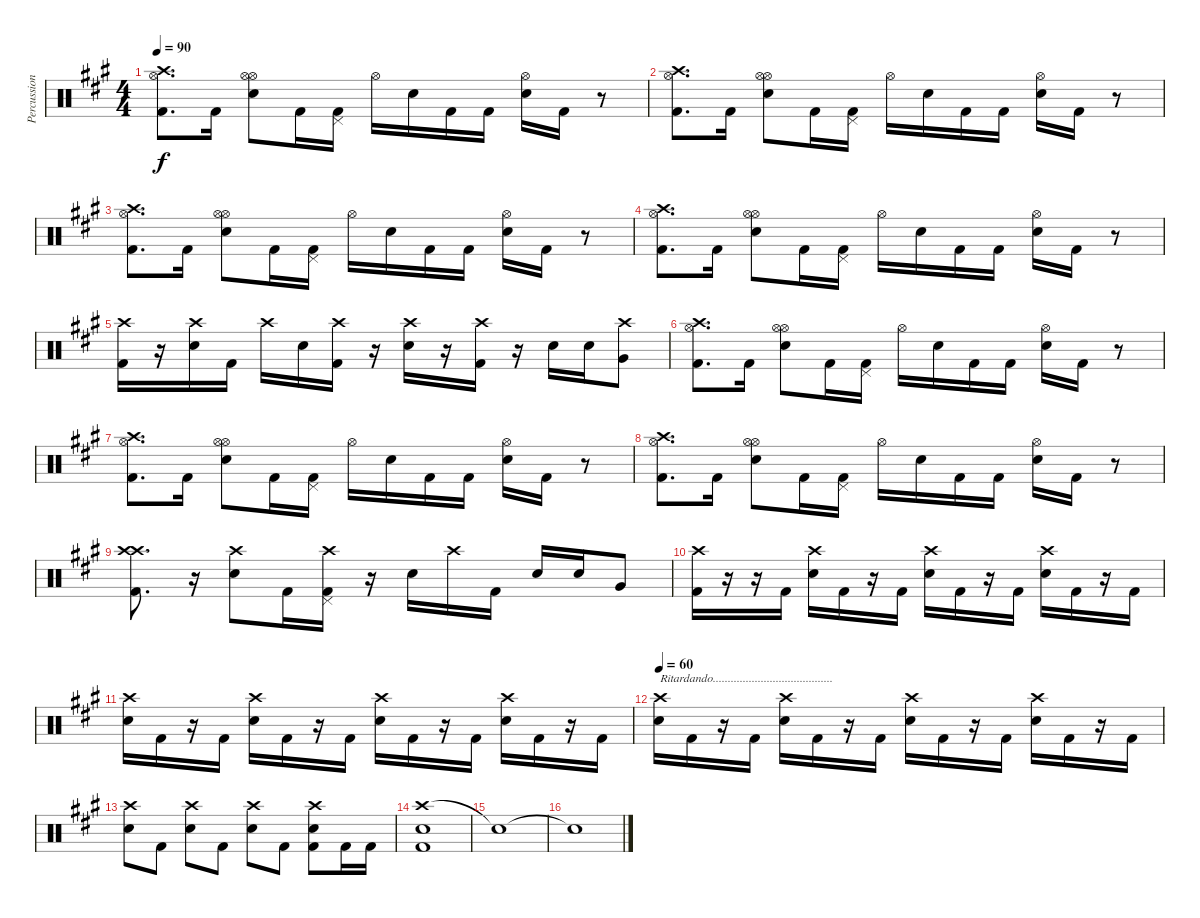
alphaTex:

\track ("Percussion" "Percussion") {instrument percussion}
\staff {score}
\articulation defaults
\ts (4 4)
\tempo 90
\clef neutral
\ks a
("Hi-Hat (open)" "Crash high (hit)" "Kick (hit) 2").8{d dy f} "Kick (hit) 2".16 ("Hi-Hat (open)" "Electric Snare (hit)" "Hi-Hat (open)").8 "Kick (hit) 2".16 ("Pedal Hi-Hat (hit)" "Kick (hit) 2").16 "Hi-Hat (open)".16 "Electric Snare (hit)".16 "Kick (hit) 2".16 "Kick (hit) 2".16 ("Hi-Hat (open)" "Electric Snare (hit)").16 "Kick (hit) 2".16 r.8 |
("Hi-Hat (open)" "Crash high (hit)" "Kick (hit) 2").8{d} "Kick (hit) 2".16 ("Hi-Hat (open)" "Electric Snare (hit)" "Hi-Hat (open)").8 "Kick (hit) 2".16 ("Pedal Hi-Hat (hit)" "Kick (hit) 2").16 "Hi-Hat (open)".16 "Electric Snare (hit)".16 "Kick (hit) 2".16 "Kick (hit) 2".16 ("Hi-Hat (open)" "Electric Snare (hit)").16 "Kick (hit) 2".16 r.8 |
("Hi-Hat (open)" "Crash high (hit)" "Kick (hit) 2").8{d} "Kick (hit) 2".16 ("Hi-Hat (open)" "Electric Snare (hit)" "Hi-Hat (open)").8 "Kick (hit) 2".16 ("Pedal Hi-Hat (hit)" "Kick (hit) 2").16 "Hi-Hat (open)".16 "Electric Snare (hit)".16 "Kick (hit) 2".16 "Kick (hit) 2".16 ("Hi-Hat (open)" "Electric Snare (hit)").16 "Kick (hit) 2".16 r.8 |
("Hi-Hat (open)" "Crash high (hit)" "Kick (hit) 2").8{d} "Kick (hit) 2".16 ("Hi-Hat (open)" "Electric Snare (hit)" "Hi-Hat (open)").8 "Kick (hit) 2".16 ("Pedal Hi-Hat (hit)" "Kick (hit) 2").16 "Hi-Hat (open)".16 "Electric Snare (hit)".16 "Kick (hit) 2".16 "Kick (hit) 2".16 ("Hi-Hat (open)" "Electric Snare (hit)").16 "Kick (hit) 2".16 r.8 |
("Crash high (hit)" "Kick (hit) 2").16 r.16 ("Crash high (hit)" "Electric Snare (hit)").16 "Kick (hit) 2".16 "Crash high (hit)".16 "Electric Snare (hit)".16 ("Crash high (hit)" "Kick (hit) 2").16 r.16 ("Crash high (hit)" "Electric Snare (hit)").16 r.16 ("Crash high (hit)" "Kick (hit) 2").16 r.16 "Electric Snare (hit)".16 "Electric Snare (hit)".16 ("Crash high (hit)" "Very Low Tom (hit)").8 |
("Hi-Hat (open)" "Crash high (hit)" "Kick (hit) 2").8{d} "Kick (hit) 2".16 ("Hi-Hat (open)" "Electric Snare (hit)" "Hi-Hat (open)").8 "Kick (hit) 2".16 ("Pedal Hi-Hat (hit)" "Kick (hit) 2").16 "Hi-Hat (open)".16 "Electric Snare (hit)".16 "Kick (hit) 2".16 "Kick (hit) 2".16 ("Hi-Hat (open)" "Electric Snare (hit)").16 "Kick (hit) 2".16 r.8 |
("Hi-Hat (open)" "Crash high (hit)" "Kick (hit) 2").8{d} "Kick (hit) 2".16 ("Hi-Hat (open)" "Electric Snare (hit)" "Hi-Hat (open)").8 "Kick (hit) 2".16 ("Pedal Hi-Hat (hit)" "Kick (hit) 2").16 "Hi-Hat (open)".16 "Electric Snare (hit)".16 "Kick (hit) 2".16 "Kick (hit) 2".16 ("Hi-Hat (open)" "Electric Snare (hit)").16 "Kick (hit) 2".16 r.8 |
("Hi-Hat (open)" "Crash high (hit)" "Kick (hit) 2").8{d} "Kick (hit) 2".16 ("Hi-Hat (open)" "Electric Snare (hit)" "Hi-Hat (open)").8 "Kick (hit) 2".16 ("Pedal Hi-Hat (hit)" "Kick (hit) 2").16 "Hi-Hat (open)".16 "Electric Snare (hit)".16 "Kick (hit) 2".16 "Kick (hit) 2".16 ("Hi-Hat (open)" "Electric Snare (hit)").16 "Kick (hit) 2".16 r.8 |
("Crash high (hit)" "Crash high (hit)" "Kick (hit) 2").8{d} r.16 ("Crash high (hit)" "Electric Snare (hit)").8 "Kick (hit) 2".16 ("Crash high (hit)" "Pedal Hi-Hat (hit)" "Kick (hit) 2").16 r.16 "Electric Snare (hit)".16 "Crash high (hit)".16 "Kick (hit) 2".16 "Electric Snare (hit)".16 "Electric Snare (hit)".16 "Very Low Tom (hit)".8 |
("Crash high (hit)" "Kick (hit) 2").16 r.16 r.16 "Kick (hit) 2".16 ("Crash high (hit)" "Electric Snare (hit)").16 "Kick (hit) 2".16 r.16 "Kick (hit) 2".16 ("Crash high (hit)" "Electric Snare (hit)").16 "Kick (hit) 2".16 r.16 "Kick (hit) 2".16 ("Crash high (hit)" "Electric Snare (hit)").16 "Kick (hit) 2".16 r.16 "Kick (hit) 2".16 |
("Crash high (hit)" "Electric Snare (hit)").16 "Kick (hit) 2".16 r.16 "Kick (hit) 2".16 ("Crash high (hit)" "Electric Snare (hit)").16 "Kick (hit) 2".16 r.16 "Kick (hit) 2".16 ("Crash high (hit)" "Electric Snare (hit)").16 "Kick (hit) 2".16 r.16 "Kick (hit) 2".16 ("Crash high (hit)" "Electric Snare (hit)").16 "Kick (hit) 2".16 r.16 "Kick (hit) 2".16 |
\tempo 60
("Crash high (hit)" "Electric Snare (hit)").16{txt "Ritardando........................................"} "Kick (hit) 2".16 r.16 "Kick (hit) 2".16 ("Crash high (hit)" "Electric Snare (hit)").16 "Kick (hit) 2".16 r.16 "Kick (hit) 2".16 ("Crash high (hit)" "Electric Snare (hit)").16 "Kick (hit) 2".16 r.16 "Kick (hit) 2".16 ("Crash high (hit)" "Electric Snare (hit)").16 "Kick (hit) 2".16 r.16 "Kick (hit) 2".16 |
("Crash high (hit)" "Electric Snare (hit)").8 "Kick (hit) 2".8 ("Crash high (hit)" "Electric Snare (hit)").8 "Kick (hit) 2".8 ("Crash high (hit)" "Electric Snare (hit)").8 "Kick (hit) 2".8 ("Crash high (hit)" "Electric Snare (hit)" "Kick (hit) 2").8 "Kick (hit) 2".16 "Kick (hit) 2".16 |
("Crash high (hit)" "Electric Snare (hit)" "Kick (hit) 2").1 |
"Snare (hit)"{t}.1 |
"Snare (hit)"{t}.1
